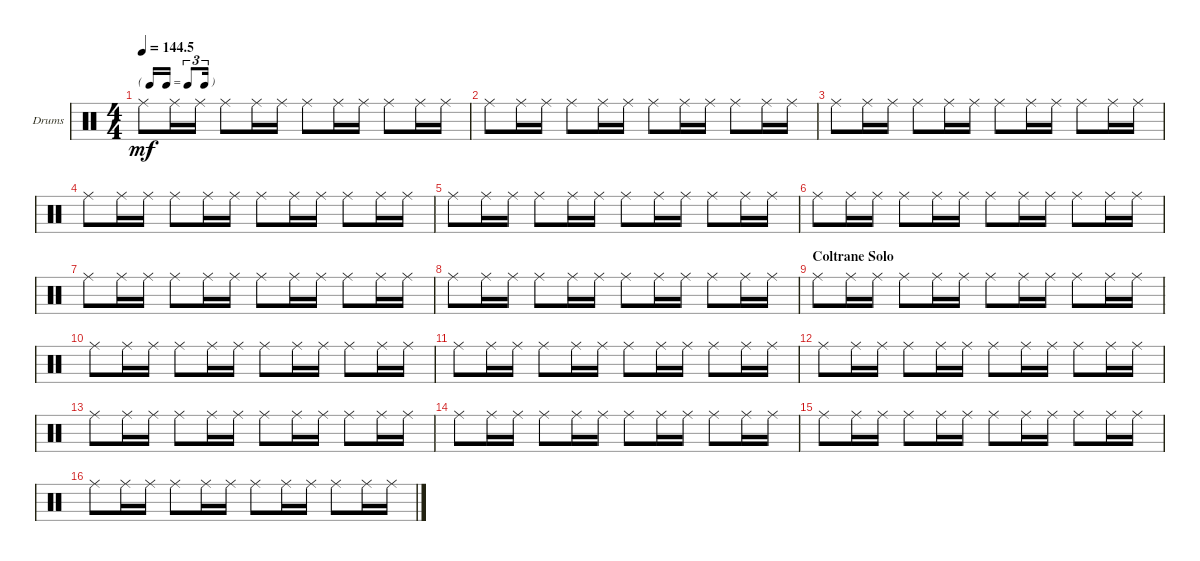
\defaultSystemsLayout 4
\bracketExtendMode groupsimilarinstruments
\firstSystemTrackNameOrientation horizontal
\otherSystemsTrackNameOrientation horizontal
\track ("Drumkit" "Drums") {instrument percussion}
\staff {score}
\articulation defaults
\ts (4 4)
\tf triplet16th
\tempo
144.5
\accidentals auto
\clef neutral
\ottava regular
\simile none
\scale
0.5
\ks c "Ride (middle)".8{dy mf} "Ride (middle)".16 "Ride (middle)".16 "Ride (middle)".8 "Ride (middle)".16 "Ride (middle)".16 "Ride (middle)".8 "Ride (middle)".16 "Ride (middle)".16 "Ride (middle)".8 "Ride (middle)".16 "Ride (middle)".16
|
\scale
0.5 "Ride (middle)".8 "Ride (middle)".16 "Ride (middle)".16 "Ride (middle)".8 "Ride (middle)".16 "Ride (middle)".16 "Ride (middle)".8 "Ride (middle)".16 "Ride (middle)".16 "Ride (middle)".8 "Ride (middle)".16 "Ride (middle)".16 |
\scale
0.5 "Ride (middle)".8 "Ride (middle)".16 "Ride (middle)".16 "Ride (middle)".8 "Ride (middle)".16 "Ride (middle)".16 "Ride (middle)".8 "Ride (middle)".16 "Ride (middle)".16 "Ride (middle)".8 "Ride (middle)".16 "Ride (middle)".16 |
\scale
0.5 "Ride (middle)".8 "Ride (middle)".16 "Ride (middle)".16 "Ride (middle)".8 "Ride (middle)".16 "Ride (middle)".16 "Ride (middle)".8 "Ride (middle)".16 "Ride (middle)".16 "Ride (middle)".8 "Ride (middle)".16 "Ride (middle)".16 |
\scale
0.5 "Ride (middle)".8 "Ride (middle)".16 "Ride (middle)".16 "Ride (middle)".8 "Ride (middle)".16 "Ride (middle)".16 "Ride (middle)".8 "Ride (middle)".16 "Ride (middle)".16 "Ride (middle)".8 "Ride (middle)".16 "Ride (middle)".16 |
\scale
0.5 "Ride (middle)".8 "Ride (middle)".16 "Ride (middle)".16 "Ride (middle)".8 "Ride (middle)".16 "Ride (middle)".16 "Ride (middle)".8 "Ride (middle)".16 "Ride (middle)".16 "Ride (middle)".8 "Ride (middle)".16 "Ride (middle)".16 |
\scale
0.5 "Ride (middle)".8 "Ride (middle)".16 "Ride (middle)".16 "Ride (middle)".8 "Ride (middle)".16 "Ride (middle)".16 "Ride (middle)".8 "Ride (middle)".16 "Ride (middle)".16 "Ride (middle)".8 "Ride (middle)".16 "Ride (middle)".16 |
\scale
0.5 "Ride (middle)".8 "Ride (middle)".16 "Ride (middle)".16 "Ride (middle)".8 "Ride (middle)".16 "Ride (middle)".16 "Ride (middle)".8 "Ride (middle)".16 "Ride (middle)".16 "Ride (middle)".8 "Ride (middle)".16 "Ride (middle)".16 |
\section ("" "Coltrane Solo")
\scale
0.5 "Ride (middle)".8 "Ride (middle)".16 "Ride (middle)".16 "Ride (middle)".8 "Ride (middle)".16 "Ride (middle)".16 "Ride (middle)".8 "Ride (middle)".16 "Ride (middle)".16 "Ride (middle)".8 "Ride (middle)".16 "Ride (middle)".16 |
\scale
0.5 "Ride (middle)".8 "Ride (middle)".16 "Ride (middle)".16 "Ride (middle)".8 "Ride (middle)".16 "Ride (middle)".16 "Ride (middle)".8 "Ride (middle)".16 "Ride (middle)".16 "Ride (middle)".8 "Ride (middle)".16 "Ride (middle)".16 |
\scale
0.5 "Ride (middle)".8 "Ride (middle)".16 "Ride (middle)".16 "Ride (middle)".8 "Ride (middle)".16 "Ride (middle)".16 "Ride (middle)".8 "Ride (middle)".16 "Ride (middle)".16 "Ride (middle)".8 "Ride (middle)".16 "Ride (middle)".16 |
\scale
0.5 "Ride (middle)".8 "Ride (middle)".16 "Ride (middle)".16 "Ride (middle)".8 "Ride (middle)".16 "Ride (middle)".16 "Ride (middle)".8 "Ride (middle)".16 "Ride (middle)".16 "Ride (middle)".8 "Ride (middle)".16 "Ride (middle)".16 |
\scale
0.5 "Ride (middle)".8 "Ride (middle)".16 "Ride (middle)".16 "Ride (middle)".8 "Ride (middle)".16 "Ride (middle)".16 "Ride (middle)".8 "Ride (middle)".16 "Ride (middle)".16 "Ride (middle)".8 "Ride (middle)".16 "Ride (middle)".16 |
\scale
0.5 "Ride (middle)".8 "Ride (middle)".16 "Ride (middle)".16 "Ride (middle)".8 "Ride (middle)".16 "Ride (middle)".16 "Ride (middle)".8 "Ride (middle)".16 "Ride (middle)".16 "Ride (middle)".8 "Ride (middle)".16 "Ride (middle)".16 |
\scale
0.5 "Ride (middle)".8 "Ride (middle)".16 "Ride (middle)".16 "Ride (middle)".8 "Ride (middle)".16 "Ride (middle)".16 "Ride (middle)".8 "Ride (middle)".16 "Ride (middle)".16 "Ride (middle)".8 "Ride (middle)".16 "Ride (middle)".16 |
\scale
0.5 "Ride (middle)".8 "Ride (middle)".16 "Ride (middle)".16 "Ride (middle)".8 "Ride (middle)".16 "Ride (middle)".16 "Ride (middle)".8 "Ride (middle)".16 "Ride (middle)".16 "Ride (middle)".8 "Ride (middle)".16 "Ride (middle)".16
